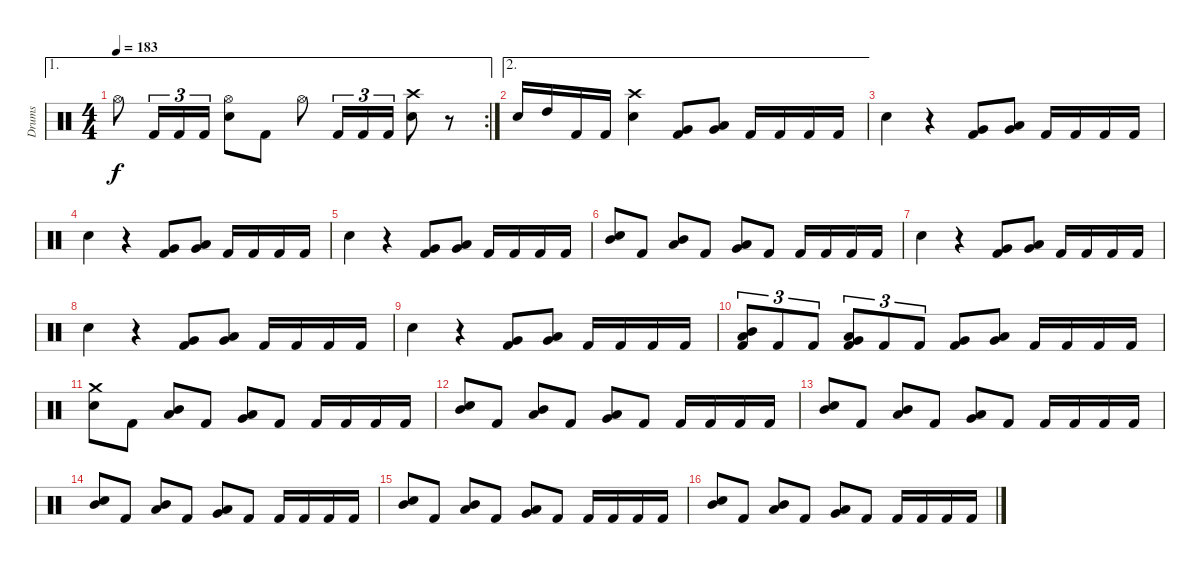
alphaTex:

\track ("Drums" "Drums") {instrument percussion}
\staff {score}
\articulation defaults
\ae 1
\rc 2
\ts (4 4)
\tempo 183
\clef neutral
\ks c "Hi-Hat (open)".8{dy f} "Kick (hit) 2".16{tu (3 2)} "Kick (hit) 2".16{tu (3 2)} "Kick (hit) 2".16{tu (3 2)}
("Electric Snare (hit)" "Hi-Hat (open)").8 "Kick (hit) 2".8 "Hi-Hat (open)".8 "Kick (hit) 2".16{tu (3 2)} "Kick (hit) 2".16{tu (3 2)} "Kick (hit) 2".16{tu (3 2)} ("Electric Snare (hit)" "Crash high (hit)").8 r.8 |
\ae 2 "Electric Snare (hit)".16 "High Tom (hit)".16 "Kick (hit) 2".16 "Kick (hit) 2".16
("Electric Snare (hit)" "Crash high (hit)").4 ("Kick (hit) 2" "Very Low Tom (hit)").8 ("Low Tom (hit)" "Very Low Tom (hit)").8 "Kick (hit) 2".16 "Kick (hit) 2".16 "Kick (hit) 2".16 "Kick (hit) 2".16 |
"Electric Snare (hit)".4 r.4 ("Kick (hit) 2" "Very Low Tom (hit)").8 ("Low Tom (hit)" "Very Low Tom (hit)").8 "Kick (hit) 2".16 "Kick (hit) 2".16 "Kick (hit) 2".16 "Kick (hit) 2".16 |
"Electric Snare (hit)".4 r.4 ("Kick (hit) 2" "Very Low Tom (hit)").8 ("Low Tom (hit)" "Very Low Tom (hit)").8 "Kick (hit) 2".16 "Kick (hit) 2".16 "Kick (hit) 2".16 "Kick (hit) 2".16 |
"Electric Snare (hit)".4 r.4 ("Kick (hit) 2" "Very Low Tom (hit)").8 ("Low Tom (hit)" "Very Low Tom (hit)").8 "Kick (hit) 2".16 "Kick (hit) 2".16 "Kick (hit) 2".16 "Kick (hit) 2".16 |
("Electric Snare (hit)" "Mid Tom (hit)").8 "Kick (hit) 2".8 ("Mid Tom (hit)" "Low Tom (hit)").8 "Kick (hit) 2".8 ("Very Low Tom (hit)" "Low Tom (hit)").8 "Kick (hit) 2".8 "Kick (hit) 2".16 "Kick (hit) 2".16 "Kick (hit) 2".16 "Kick (hit) 2".16 |
"Electric Snare (hit)".4 r.4 ("Kick (hit) 2" "Very Low Tom (hit)").8 ("Low Tom (hit)" "Very Low Tom (hit)").8 "Kick (hit) 2".16 "Kick (hit) 2".16 "Kick (hit) 2".16 "Kick (hit) 2".16 |
"Electric Snare (hit)".4 r.4 ("Kick (hit) 2" "Very Low Tom (hit)").8 ("Low Tom (hit)" "Very Low Tom (hit)").8 "Kick (hit) 2".16 "Kick (hit) 2".16 "Kick (hit) 2".16 "Kick (hit) 2".16 |
"Electric Snare (hit)".4 r.4 ("Kick (hit) 2" "Very Low Tom (hit)").8 ("Low Tom (hit)" "Very Low Tom (hit)").8 "Kick (hit) 2".16 "Kick (hit) 2".16 "Kick (hit) 2".16 "Kick (hit) 2".16 |
("Kick (hit) 2" "Mid Tom (hit)" "Low Tom (hit)").8{tu (3 2)} "Kick (hit) 2".8{tu (3 2)} "Kick (hit) 2".8{tu (3 2)} ("Kick (hit) 2" "Low Tom (hit)" "Very Low Tom (hit)").8{tu (3 2)} "Kick (hit) 2".8{tu (3 2)} "Kick (hit) 2".8{tu (3 2)} ("Kick (hit) 2" "Very Low Tom (hit)").8 ("Low Tom (hit)" "Very Low Tom (hit)").8 "Kick (hit) 2".16 "Kick (hit) 2".16 "Kick (hit) 2".16 "Kick (hit) 2".16 |
("Electric Snare (hit)" "Crash medium (hit)").8 "Kick (hit) 2".8 ("Mid Tom (hit)" "Low Tom (hit)").8 "Kick (hit) 2".8 ("Very Low Tom (hit)" "Low Tom (hit)").8 "Kick (hit) 2".8 "Kick (hit) 2".16 "Kick (hit) 2".16 "Kick (hit) 2".16 "Kick (hit) 2".16 |
("Electric Snare (hit)" "Mid Tom (hit)").8 "Kick (hit) 2".8 ("Mid Tom (hit)" "Low Tom (hit)").8 "Kick (hit) 2".8 ("Very Low Tom (hit)" "Low Tom (hit)").8 "Kick (hit) 2".8 "Kick (hit) 2".16 "Kick (hit) 2".16 "Kick (hit) 2".16 "Kick (hit) 2".16 |
("Electric Snare (hit)" "Mid Tom (hit)").8 "Kick (hit) 2".8 ("Mid Tom (hit)" "Low Tom (hit)").8 "Kick (hit) 2".8 ("Very Low Tom (hit)" "Low Tom (hit)").8 "Kick (hit) 2".8 "Kick (hit) 2".16 "Kick (hit) 2".16 "Kick (hit) 2".16 "Kick (hit) 2".16 |
("Electric Snare (hit)" "Mid Tom (hit)").8 "Kick (hit) 2".8 ("Mid Tom (hit)" "Low Tom (hit)").8 "Kick (hit) 2".8 ("Very Low Tom (hit)" "Low Tom (hit)").8 "Kick (hit) 2".8 "Kick (hit) 2".16 "Kick (hit) 2".16 "Kick (hit) 2".16 "Kick (hit) 2".16 |
("Electric Snare (hit)" "Mid Tom (hit)").8 "Kick (hit) 2".8 ("Mid Tom (hit)" "Low Tom (hit)").8 "Kick (hit) 2".8 ("Very Low Tom (hit)" "Low Tom (hit)").8 "Kick (hit) 2".8 "Kick (hit) 2".16 "Kick (hit) 2".16 "Kick (hit) 2".16 "Kick (hit) 2".16 |
("Electric Snare (hit)" "Mid Tom (hit)").8 "Kick (hit) 2".8 ("Mid Tom (hit)" "Low Tom (hit)").8 "Kick (hit) 2".8 ("Very Low Tom (hit)" "Low Tom (hit)").8 "Kick (hit) 2".8 "Kick (hit) 2".16 "Kick (hit) 2".16 "Kick (hit) 2".16 "Kick (hit) 2".16
